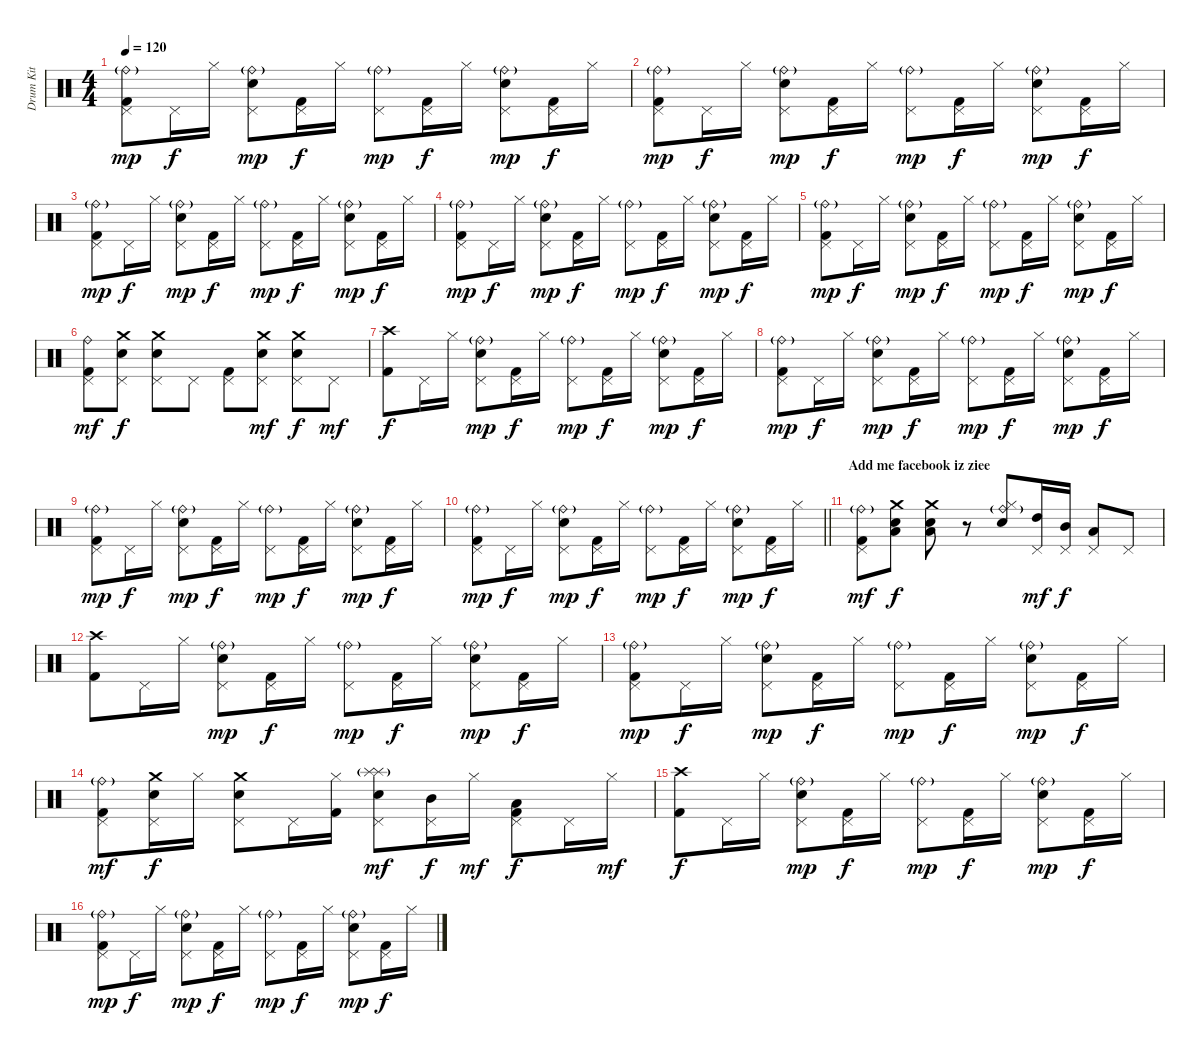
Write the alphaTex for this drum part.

\track ("Drum Kit" "Drum Kit") {instrument percussion}
\staff {score}
\articulation defaults
\ts (4 4)
\tempo 120
\clef neutral
\ks c
("Kick (hit) 2" "Pedal Hi-Hat (hit)" "Ride (bell)"{g}).8{dy mp} "Pedal Hi-Hat (hit)".16{dy f} "Hi-Hat (closed)".16 ("Electric Snare (hit)" "Pedal Hi-Hat (hit)" "Ride (bell)"{g}).8{dy mp} ("Kick (hit) 2" "Pedal Hi-Hat (hit)").16{dy f} "Hi-Hat (closed)".16 ("Pedal Hi-Hat (hit)" "Ride (bell)"{g}).8{dy mp} ("Kick (hit) 2" "Pedal Hi-Hat (hit)").16{dy f} "Hi-Hat (closed)".16 ("Electric Snare (hit)" "Pedal Hi-Hat (hit)" "Ride (bell)"{g}).8{dy mp} ("Kick (hit) 2" "Pedal Hi-Hat (hit)").16{dy f} "Hi-Hat (closed)".16 |
("Kick (hit) 2" "Pedal Hi-Hat (hit)" "Ride (bell)"{g}).8{dy mp} "Pedal Hi-Hat (hit)".16{dy f} "Hi-Hat (closed)".16 ("Electric Snare (hit)" "Pedal Hi-Hat (hit)" "Ride (bell)"{g}).8{dy mp} ("Kick (hit) 2" "Pedal Hi-Hat (hit)").16{dy f} "Hi-Hat (closed)".16 ("Pedal Hi-Hat (hit)" "Ride (bell)"{g}).8{dy mp} ("Kick (hit) 2" "Pedal Hi-Hat (hit)").16{dy f} "Hi-Hat (closed)".16 ("Electric Snare (hit)" "Pedal Hi-Hat (hit)" "Ride (bell)"{g}).8{dy mp} ("Kick (hit) 2" "Pedal Hi-Hat (hit)").16{dy f} "Hi-Hat (closed)".16 |
("Kick (hit) 2" "Pedal Hi-Hat (hit)" "Ride (bell)"{g}).8{dy mp} "Pedal Hi-Hat (hit)".16{dy f} "Hi-Hat (closed)".16 ("Electric Snare (hit)" "Pedal Hi-Hat (hit)" "Ride (bell)"{g}).8{dy mp} ("Kick (hit) 2" "Pedal Hi-Hat (hit)").16{dy f} "Hi-Hat (closed)".16 ("Pedal Hi-Hat (hit)" "Ride (bell)"{g}).8{dy mp} ("Kick (hit) 2" "Pedal Hi-Hat (hit)").16{dy f} "Hi-Hat (closed)".16 ("Electric Snare (hit)" "Pedal Hi-Hat (hit)" "Ride (bell)"{g}).8{dy mp} ("Kick (hit) 2" "Pedal Hi-Hat (hit)").16{dy f} "Hi-Hat (closed)".16 |
("Kick (hit) 2" "Pedal Hi-Hat (hit)" "Ride (bell)"{g}).8{dy mp} "Pedal Hi-Hat (hit)".16{dy f} "Hi-Hat (closed)".16 ("Electric Snare (hit)" "Pedal Hi-Hat (hit)" "Ride (bell)"{g}).8{dy mp} ("Kick (hit) 2" "Pedal Hi-Hat (hit)").16{dy f} "Hi-Hat (closed)".16 ("Pedal Hi-Hat (hit)" "Ride (bell)"{g}).8{dy mp} ("Kick (hit) 2" "Pedal Hi-Hat (hit)").16{dy f} "Hi-Hat (closed)".16 ("Electric Snare (hit)" "Pedal Hi-Hat (hit)" "Ride (bell)"{g}).8{dy mp} ("Kick (hit) 2" "Pedal Hi-Hat (hit)").16{dy f} "Hi-Hat (closed)".16 |
("Kick (hit) 2" "Pedal Hi-Hat (hit)" "Ride (bell)"{g}).8{dy mp} "Pedal Hi-Hat (hit)".16{dy f} "Hi-Hat (closed)".16 ("Electric Snare (hit)" "Pedal Hi-Hat (hit)" "Ride (bell)"{g}).8{dy mp} ("Kick (hit) 2" "Pedal Hi-Hat (hit)").16{dy f} "Hi-Hat (closed)".16 ("Pedal Hi-Hat (hit)" "Ride (bell)"{g}).8{dy mp} ("Kick (hit) 2" "Pedal Hi-Hat (hit)").16{dy f} "Hi-Hat (closed)".16 ("Electric Snare (hit)" "Pedal Hi-Hat (hit)" "Ride (bell)"{g}).8{dy mp} ("Kick (hit) 2" "Pedal Hi-Hat (hit)").16{dy f} "Hi-Hat (closed)".16 |
("Kick (hit) 2" "Pedal Hi-Hat (hit)" "Ride (bell)").8{dy mf} ("Crash medium (hit)" "Electric Snare (hit)" "Pedal Hi-Hat (hit)").8{dy f} ("Electric Snare (hit)" "Crash medium (hit)" "Pedal Hi-Hat (hit)").8 "Pedal Hi-Hat (hit)".8 ("Kick (hit) 2" "Pedal Hi-Hat (hit)").8 ("Electric Snare (hit)" "Pedal Hi-Hat (hit)" "Crash medium (hit)").8{dy mf} ("Pedal Hi-Hat (hit)" "Electric Snare (hit)" "Crash medium (hit)").8{dy f} "Pedal Hi-Hat (hit)".8{dy mf} |
("Crash high (hit)" "Kick (hit) 2").8{dy f} "Pedal Hi-Hat (hit)".16 "Hi-Hat (closed)".16 ("Electric Snare (hit)" "Pedal Hi-Hat (hit)" "Ride (bell)"{g}).8{dy mp} ("Kick (hit) 2" "Pedal Hi-Hat (hit)").16{dy f} "Hi-Hat (closed)".16 ("Pedal Hi-Hat (hit)" "Ride (bell)"{g}).8{dy mp} ("Kick (hit) 2" "Pedal Hi-Hat (hit)").16{dy f} "Hi-Hat (closed)".16 ("Electric Snare (hit)" "Pedal Hi-Hat (hit)" "Ride (bell)"{g}).8{dy mp} ("Kick (hit) 2" "Pedal Hi-Hat (hit)").16{dy f} "Hi-Hat (closed)".16 |
("Kick (hit) 2" "Pedal Hi-Hat (hit)" "Ride (bell)"{g}).8{dy mp} "Pedal Hi-Hat (hit)".16{dy f} "Hi-Hat (closed)".16 ("Electric Snare (hit)" "Pedal Hi-Hat (hit)" "Ride (bell)"{g}).8{dy mp} ("Kick (hit) 2" "Pedal Hi-Hat (hit)").16{dy f} "Hi-Hat (closed)".16 ("Pedal Hi-Hat (hit)" "Ride (bell)"{g}).8{dy mp} ("Kick (hit) 2" "Pedal Hi-Hat (hit)").16{dy f} "Hi-Hat (closed)".16 ("Electric Snare (hit)" "Pedal Hi-Hat (hit)" "Ride (bell)"{g}).8{dy mp} ("Kick (hit) 2" "Pedal Hi-Hat (hit)").16{dy f} "Hi-Hat (closed)".16 |
("Kick (hit) 2" "Pedal Hi-Hat (hit)" "Ride (bell)"{g}).8{dy mp} "Pedal Hi-Hat (hit)".16{dy f} "Hi-Hat (closed)".16 ("Electric Snare (hit)" "Pedal Hi-Hat (hit)" "Ride (bell)"{g}).8{dy mp} ("Kick (hit) 2" "Pedal Hi-Hat (hit)").16{dy f} "Hi-Hat (closed)".16 ("Pedal Hi-Hat (hit)" "Ride (bell)"{g}).8{dy mp} ("Kick (hit) 2" "Pedal Hi-Hat (hit)").16{dy f} "Hi-Hat (closed)".16 ("Electric Snare (hit)" "Pedal Hi-Hat (hit)" "Ride (bell)"{g}).8{dy mp} ("Kick (hit) 2" "Pedal Hi-Hat (hit)").16{dy f} "Hi-Hat (closed)".16 |
\barLineRight lightlight
("Kick (hit) 2" "Pedal Hi-Hat (hit)" "Ride (bell)"{g}).8{dy mp} "Pedal Hi-Hat (hit)".16{dy f} "Hi-Hat (closed)".16 ("Electric Snare (hit)" "Pedal Hi-Hat (hit)" "Ride (bell)"{g}).8{dy mp} ("Kick (hit) 2" "Pedal Hi-Hat (hit)").16{dy f} "Hi-Hat (closed)".16 ("Pedal Hi-Hat (hit)" "Ride (bell)"{g}).8{dy mp} ("Kick (hit) 2" "Pedal Hi-Hat (hit)").16{dy f} "Hi-Hat (closed)".16 ("Electric Snare (hit)" "Pedal Hi-Hat (hit)" "Ride (bell)"{g}).8{dy mp} ("Kick (hit) 2" "Pedal Hi-Hat (hit)").16{dy f} "Hi-Hat (closed)".16 |
\section ("" "Add me facebook iz ziee")
("Kick (hit) 2" "Pedal Hi-Hat (hit)" "Ride (bell)"{g}).8{dy mf} ("Crash medium (hit)" "Electric Snare (hit)" "Low Tom (hit)").8{dy f} ("Low Tom (hit)" "Crash medium (hit)" "Electric Snare (hit)").8 r.8 ("Electric Snare (hit)" "Hi-Hat (closed)" "Ride (bell)"{g}).8 ("High Tom (hit)" "Pedal Hi-Hat (hit)").16{dy mf} ("Mid Tom (hit)" "Pedal Hi-Hat (hit)").16{dy f} ("Low Tom (hit)" "Pedal Hi-Hat (hit)").8 "Pedal Hi-Hat (hit)".8 |
("Crash high (hit)" "Kick (hit) 2").8 "Pedal Hi-Hat (hit)".16 "Hi-Hat (closed)".16 ("Electric Snare (hit)" "Pedal Hi-Hat (hit)" "Ride (bell)"{g}).8{dy mp} ("Kick (hit) 2" "Pedal Hi-Hat (hit)").16{dy f} "Hi-Hat (closed)".16 ("Pedal Hi-Hat (hit)" "Ride (bell)"{g}).8{dy mp} ("Kick (hit) 2" "Pedal Hi-Hat (hit)").16{dy f} "Hi-Hat (closed)".16 ("Electric Snare (hit)" "Pedal Hi-Hat (hit)" "Ride (bell)"{g}).8{dy mp} ("Kick (hit) 2" "Pedal Hi-Hat (hit)").16{dy f} "Hi-Hat (closed)".16 |
("Kick (hit) 2" "Pedal Hi-Hat (hit)" "Ride (bell)"{g}).8{dy mp} "Pedal Hi-Hat (hit)".16{dy f} "Hi-Hat (closed)".16 ("Electric Snare (hit)" "Pedal Hi-Hat (hit)" "Ride (bell)"{g}).8{dy mp} ("Kick (hit) 2" "Pedal Hi-Hat (hit)").16{dy f} "Hi-Hat (closed)".16 ("Pedal Hi-Hat (hit)" "Ride (bell)"{g}).8{dy mp} ("Kick (hit) 2" "Pedal Hi-Hat (hit)").16{dy f} "Hi-Hat (closed)".16 ("Electric Snare (hit)" "Pedal Hi-Hat (hit)" "Ride (bell)"{g}).8{dy mp} ("Kick (hit) 2" "Pedal Hi-Hat (hit)").16{dy f} "Hi-Hat (closed)".16 |
("Kick (hit) 2" "Pedal Hi-Hat (hit)" "Ride (bell)"{g}).8{dy mf} ("Crash medium (hit)" "Electric Snare (hit)" "Pedal Hi-Hat (hit)").16{dy f} "Hi-Hat (closed)".16 ("Electric Snare (hit)" "Pedal Hi-Hat (hit)" "Crash medium (hit)").8 "Pedal Hi-Hat (hit)".16 ("Kick (hit) 2" "Hi-Hat (closed)").16 ("Electric Snare (hit)" "Pedal Hi-Hat (hit)" "Splash (hit)" "Splash (hit)"{g}).8{dy mf} ("Mid Tom (hit)" "Pedal Hi-Hat (hit)").16{dy f} "Hi-Hat (closed)".16{dy mf} ("Kick (hit) 2" "Low Tom (hit)" "Pedal Hi-Hat (hit)").8{dy f} "Pedal Hi-Hat (hit)".16 "Hi-Hat (closed)".16{dy mf} |
("Crash high (hit)" "Kick (hit) 2").8{dy f} "Pedal Hi-Hat (hit)".16 "Hi-Hat (closed)".16 ("Electric Snare (hit)" "Pedal Hi-Hat (hit)" "Ride (bell)"{g}).8{dy mp} ("Kick (hit) 2" "Pedal Hi-Hat (hit)").16{dy f} "Hi-Hat (closed)".16 ("Pedal Hi-Hat (hit)" "Ride (bell)"{g}).8{dy mp} ("Kick (hit) 2" "Pedal Hi-Hat (hit)").16{dy f} "Hi-Hat (closed)".16 ("Electric Snare (hit)" "Pedal Hi-Hat (hit)" "Ride (bell)"{g}).8{dy mp} ("Kick (hit) 2" "Pedal Hi-Hat (hit)").16{dy f} "Hi-Hat (closed)".16 |
("Kick (hit) 2" "Pedal Hi-Hat (hit)" "Ride (bell)"{g}).8{dy mp} "Pedal Hi-Hat (hit)".16{dy f} "Hi-Hat (closed)".16 ("Electric Snare (hit)" "Pedal Hi-Hat (hit)" "Ride (bell)"{g}).8{dy mp} ("Kick (hit) 2" "Pedal Hi-Hat (hit)").16{dy f} "Hi-Hat (closed)".16 ("Pedal Hi-Hat (hit)" "Ride (bell)"{g}).8{dy mp} ("Kick (hit) 2" "Pedal Hi-Hat (hit)").16{dy f} "Hi-Hat (closed)".16 ("Electric Snare (hit)" "Pedal Hi-Hat (hit)" "Ride (bell)"{g}).8{dy mp} ("Kick (hit) 2" "Pedal Hi-Hat (hit)").16{dy f} "Hi-Hat (closed)".16
